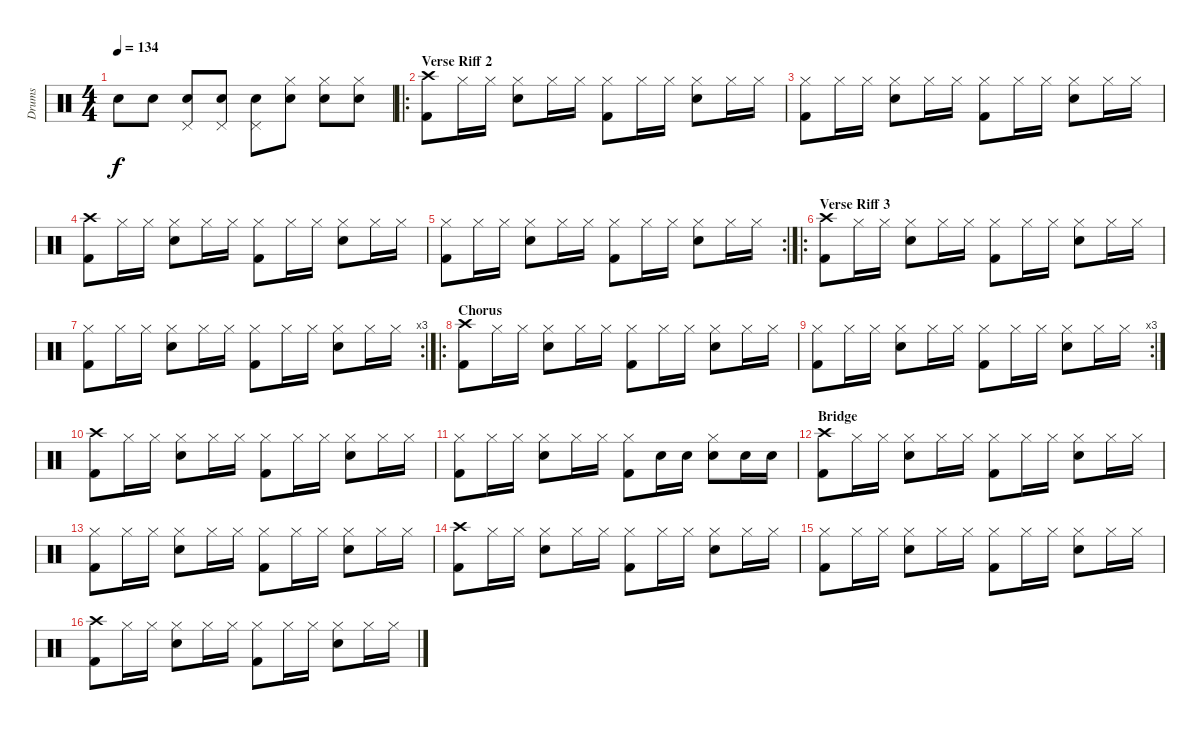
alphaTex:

\track ("Drums" "Drums") {instrument percussion}
\staff {score}
\articulation defaults
\ts (4 4)
\tempo 134
\clef neutral
\ks c "Snare (hit) 2".8{dy f} "Snare (hit) 2".8
("Snare (hit) 2" "Pedal Hi-Hat (hit)").8 ("Snare (hit) 2" "Pedal Hi-Hat (hit)").8 ("Snare (hit) 2" "Pedal Hi-Hat (hit)").8 ("Snare (hit) 2" "Hi-Hat (closed)").8 ("Snare (hit) 2" "Hi-Hat (closed)").8 ("Snare (hit) 2" "Hi-Hat (closed)").8 |
\ro
\section ("" "Verse Riff 2")
("Kick (hit) 2" "Crash high (hit)").8 "Hi-Hat (closed)".16 "Hi-Hat (closed)".16 ("Snare (hit) 2" "Hi-Hat (closed)").8 "Hi-Hat (closed)".16 "Hi-Hat (closed)".16 ("Kick (hit) 2" "Hi-Hat (closed)").8 "Hi-Hat (closed)".16 "Hi-Hat (closed)".16 ("Snare (hit) 2" "Hi-Hat (closed)").8 "Hi-Hat (closed)".16 "Hi-Hat (closed)".16 |
("Kick (hit) 2" "Hi-Hat (closed)").8 "Hi-Hat (closed)".16 "Hi-Hat (closed)".16 ("Snare (hit) 2" "Hi-Hat (closed)").8 "Hi-Hat (closed)".16 "Hi-Hat (closed)".16 ("Kick (hit) 2" "Hi-Hat (closed)").8 "Hi-Hat (closed)".16 "Hi-Hat (closed)".16 ("Snare (hit) 2" "Hi-Hat (closed)").8 "Hi-Hat (closed)".16 "Hi-Hat (closed)".16 |
("Kick (hit) 2" "Crash high (hit)").8 "Hi-Hat (closed)".16 "Hi-Hat (closed)".16 ("Snare (hit) 2" "Hi-Hat (closed)").8 "Hi-Hat (closed)".16 "Hi-Hat (closed)".16 ("Kick (hit) 2" "Hi-Hat (closed)").8 "Hi-Hat (closed)".16 "Hi-Hat (closed)".16 ("Snare (hit) 2" "Hi-Hat (closed)").8 "Hi-Hat (closed)".16 "Hi-Hat (closed)".16 |
\rc 2
("Kick (hit) 2" "Hi-Hat (closed)").8 "Hi-Hat (closed)".16 "Hi-Hat (closed)".16 ("Snare (hit) 2" "Hi-Hat (closed)").8 "Hi-Hat (closed)".16 "Hi-Hat (closed)".16 ("Kick (hit) 2" "Hi-Hat (closed)").8 "Hi-Hat (closed)".16 "Hi-Hat (closed)".16 ("Snare (hit) 2" "Hi-Hat (closed)").8 "Hi-Hat (closed)".16 "Hi-Hat (closed)".16 |
\ro
\section ("" "Verse Riff 3")
("Kick (hit) 2" "Crash high (hit)").8 "Hi-Hat (closed)".16 "Hi-Hat (closed)".16 ("Snare (hit) 2" "Hi-Hat (closed)").8 "Hi-Hat (closed)".16 "Hi-Hat (closed)".16 ("Kick (hit) 2" "Hi-Hat (closed)").8 "Hi-Hat (closed)".16 "Hi-Hat (closed)".16 ("Snare (hit) 2" "Hi-Hat (closed)").8 "Hi-Hat (closed)".16 "Hi-Hat (closed)".16 |
\rc 3
("Kick (hit) 2" "Hi-Hat (closed)").8 "Hi-Hat (closed)".16 "Hi-Hat (closed)".16 ("Snare (hit) 2" "Hi-Hat (closed)").8 "Hi-Hat (closed)".16 "Hi-Hat (closed)".16 ("Kick (hit) 2" "Hi-Hat (closed)").8 "Hi-Hat (closed)".16 "Hi-Hat (closed)".16 ("Snare (hit) 2" "Hi-Hat (closed)").8 "Hi-Hat (closed)".16 "Hi-Hat (closed)".16 |
\ro
\section ("" "Chorus")
("Kick (hit) 2" "Crash high (hit)").8 "Hi-Hat (closed)".16 "Hi-Hat (closed)".16 ("Snare (hit) 2" "Hi-Hat (closed)").8 "Hi-Hat (closed)".16 "Hi-Hat (closed)".16 ("Kick (hit) 2" "Hi-Hat (closed)").8 "Hi-Hat (closed)".16 "Hi-Hat (closed)".16 ("Snare (hit) 2" "Hi-Hat (closed)").8 "Hi-Hat (closed)".16 "Hi-Hat (closed)".16 |
\rc 3
("Kick (hit) 2" "Hi-Hat (closed)").8 "Hi-Hat (closed)".16 "Hi-Hat (closed)".16 ("Snare (hit) 2" "Hi-Hat (closed)").8 "Hi-Hat (closed)".16 "Hi-Hat (closed)".16 ("Kick (hit) 2" "Hi-Hat (closed)").8 "Hi-Hat (closed)".16 "Hi-Hat (closed)".16 ("Snare (hit) 2" "Hi-Hat (closed)").8 "Hi-Hat (closed)".16 "Hi-Hat (closed)".16 |
("Kick (hit) 2" "Crash high (hit)").8 "Hi-Hat (closed)".16 "Hi-Hat (closed)".16 ("Snare (hit) 2" "Hi-Hat (closed)").8 "Hi-Hat (closed)".16 "Hi-Hat (closed)".16 ("Kick (hit) 2" "Hi-Hat (closed)").8 "Hi-Hat (closed)".16 "Hi-Hat (closed)".16 ("Snare (hit) 2" "Hi-Hat (closed)").8 "Hi-Hat (closed)".16 "Hi-Hat (closed)".16 |
("Kick (hit) 2" "Hi-Hat (closed)").8 "Hi-Hat (closed)".16 "Hi-Hat (closed)".16 ("Snare (hit) 2" "Hi-Hat (closed)").8 "Hi-Hat (closed)".16 "Hi-Hat (closed)".16 ("Kick (hit) 2" "Hi-Hat (closed)").8 "Snare (hit) 2".16 "Snare (hit) 2".16 ("Snare (hit) 2" "Hi-Hat (closed)").8 "Snare (hit) 2".16 "Snare (hit) 2".16 |
\section ("" "Bridge")
("Kick (hit) 2" "Crash high (hit)").8 "Hi-Hat (closed)".16 "Hi-Hat (closed)".16 ("Snare (hit) 2" "Hi-Hat (closed)").8 "Hi-Hat (closed)".16 "Hi-Hat (closed)".16 ("Kick (hit) 2" "Hi-Hat (closed)").8 "Hi-Hat (closed)".16 "Hi-Hat (closed)".16 ("Snare (hit) 2" "Hi-Hat (closed)").8 "Hi-Hat (closed)".16 "Hi-Hat (closed)".16 |
("Kick (hit) 2" "Hi-Hat (closed)").8 "Hi-Hat (closed)".16 "Hi-Hat (closed)".16 ("Snare (hit) 2" "Hi-Hat (closed)").8 "Hi-Hat (closed)".16 "Hi-Hat (closed)".16 ("Kick (hit) 2" "Hi-Hat (closed)").8 "Hi-Hat (closed)".16 "Hi-Hat (closed)".16 ("Snare (hit) 2" "Hi-Hat (closed)").8 "Hi-Hat (closed)".16 "Hi-Hat (closed)".16 |
("Kick (hit) 2" "Crash high (hit)").8 "Hi-Hat (closed)".16 "Hi-Hat (closed)".16 ("Snare (hit) 2" "Hi-Hat (closed)").8 "Hi-Hat (closed)".16 "Hi-Hat (closed)".16 ("Kick (hit) 2" "Hi-Hat (closed)").8 "Hi-Hat (closed)".16 "Hi-Hat (closed)".16 ("Snare (hit) 2" "Hi-Hat (closed)").8 "Hi-Hat (closed)".16 "Hi-Hat (closed)".16 |
("Kick (hit) 2" "Hi-Hat (closed)").8 "Hi-Hat (closed)".16 "Hi-Hat (closed)".16 ("Snare (hit) 2" "Hi-Hat (closed)").8 "Hi-Hat (closed)".16 "Hi-Hat (closed)".16 ("Kick (hit) 2" "Hi-Hat (closed)").8 "Hi-Hat (closed)".16 "Hi-Hat (closed)".16 ("Snare (hit) 2" "Hi-Hat (closed)").8 "Hi-Hat (closed)".16 "Hi-Hat (closed)".16 |
("Kick (hit) 2" "Crash high (hit)").8 "Hi-Hat (closed)".16 "Hi-Hat (closed)".16 ("Snare (hit) 2" "Hi-Hat (closed)").8 "Hi-Hat (closed)".16 "Hi-Hat (closed)".16 ("Kick (hit) 2" "Hi-Hat (closed)").8 "Hi-Hat (closed)".16 "Hi-Hat (closed)".16 ("Snare (hit) 2" "Hi-Hat (closed)").8 "Hi-Hat (closed)".16 "Hi-Hat (closed)".16
